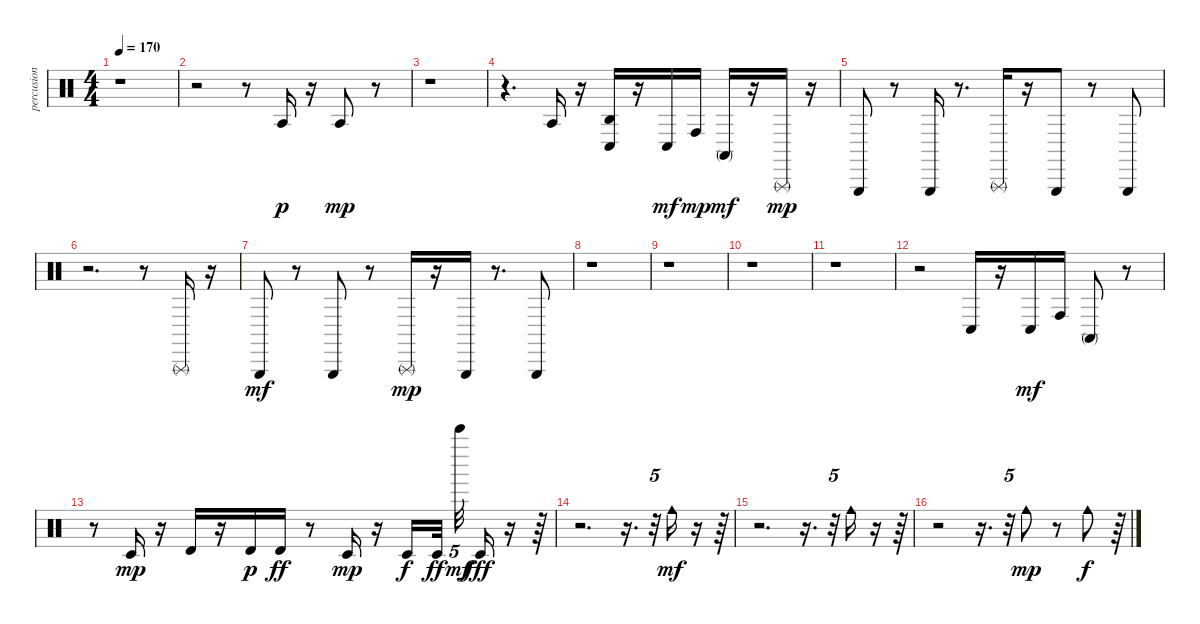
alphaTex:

\track ("percusion" "percusion") {instrument percussion}
\staff {score}
\articulation defaults
\ts (4 4)
\tempo 170
\clef neutral
\ks c
r.1{dy f} |
r.2 r.8 "Agogo tow (hit)".16{dy p} r.16 "Agogo tow (hit)".8{dy mp} r.8 |
r.1 |
r.4{d} "Agogo tow (hit)".16 r.16 ("Agogo high (hit)" "Conga low (hit)").16 r.16 "Conga low (hit)".16{dy mf} "Conga high (hit)".16{dy mp} "Conga high (mute)".16{dy mf} r.16 "Triangle (rnute)".16{dy mp} r.16 |
"Triangle (hit)".8 r.8 "Triangle (hit)".16 r.8{d} "Triangle (rnute)".16 r.16 "Triangle (hit)".8 r.8 "Triangle (hit)".8 |
r.2{d} r.8 "Triangle (rnute)".16 r.16 |
"Triangle (hit)".8{dy mf} r.8 "Triangle (hit)".8 r.8 "Triangle (rnute)".16{dy mp} r.16 "Triangle (hit)".16 r.8{d} "Triangle (hit)".8 |
r.1 |
r.1 |
r.1 |
r.1 |
r.2 "Conga low (hit)".16 r.16 "Conga low (hit)".16{dy mf} "Conga high (hit)".16 "Conga high (mute)".8 r.8 |
r.8 "Timbale low (hit)".16{dy mp} r.16 "Timbale high (hit)".16 r.16 "Timbale high (hit)".16{dy p} "Timbale high (hit)".16{dy ff} r.8 "Timbale low (hit)".16{dy mp} r.16 "Timbale low (hit)".16{dy f} "Timbale low (hit)".32{dy ff} "Bell Tree (hit)".32{tu (5 4) dy mf} "Timbale low (hit)".16{dy fff} r.16 r.64 |
r.2{d} r.16{d} r.32{tu (5 4)} "Cowbell medium (hit)".16{dy mf} r.16 r.64 |
r.2{d} r.16{d} r.32{tu (5 4)} "Cowbell medium (hit)".16 r.16 r.64 |
r.2 r.16{d} r.32{tu (5 4)} "Cowbell medium (hit)".8{dy mp} r.8 "Cowbell medium (hit)".8{dy f} r.64
